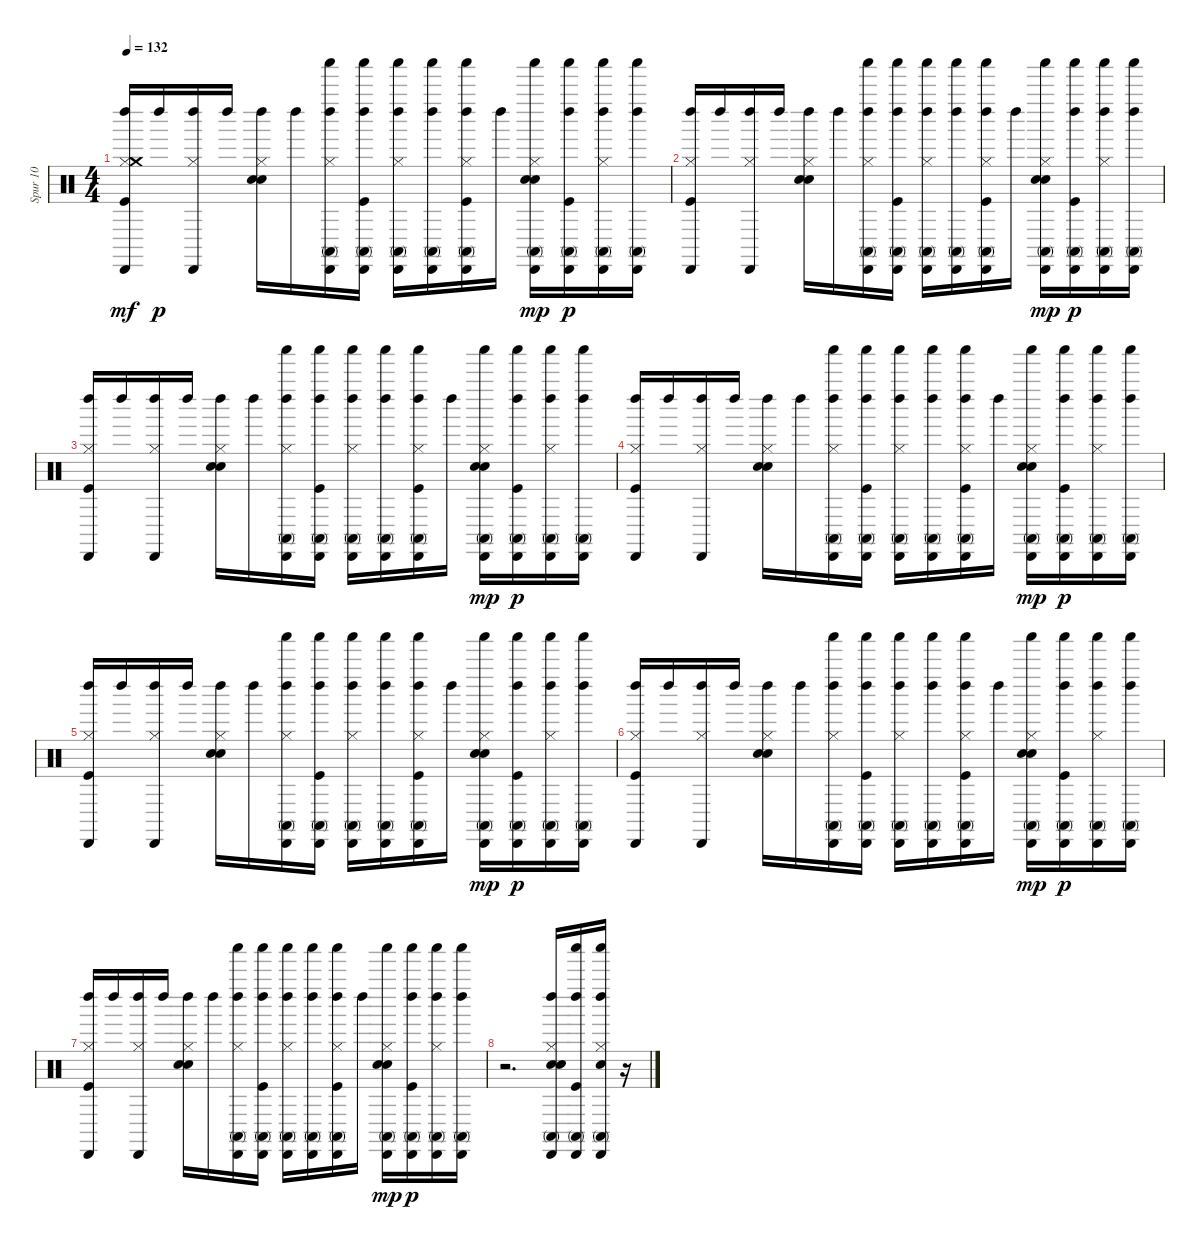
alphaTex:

\track ("Spur 10" "Spur 10") {instrument percussion}
\staff {score}
\articulation defaults
\ts (4 4)
\tempo 132
\clef neutral
\ks c
("Kick (hit)" "Hi-Hat (closed)" "Left Maraca (hit)" "Cabasa (hit)" "Crash medium (hit)").16{dy mf} "Left Maraca (hit)".16{dy p} ("Hi-Hat (closed)" "Left Maraca (hit)" "Cabasa (hit)").16 "Left Maraca (hit)".16 ("Hi-Hat (closed)" "Snare (hit) 2" "Hand Clap (hit)" "Left Maraca (hit)").16 "Left Maraca (hit)".16 ("Shaker (hit)" "Hi-Hat (closed)" "Cabasa (hit)" "Conga high (mute)" "Left Maraca (hit)").16 ("Shaker (hit)" "Kick (hit)" "Cabasa (hit)" "Conga high (mute)" "Left Maraca (hit)").16 ("Shaker (hit)" "Hi-Hat (closed)" "Cabasa (hit)" "Conga high (mute)" "Left Maraca (hit)").16 ("Shaker (hit)" "Cabasa (hit)" "Conga high (mute)" "Left Maraca (hit)").16 ("Shaker (hit)" "Kick (hit)" "Hi-Hat (closed)" "Cabasa (hit)" "Conga high (mute)" "Left Maraca (hit)").16 "Left Maraca (hit)".16 ("Shaker (hit)" "Hi-Hat (closed)" "Snare (hit) 2" "Cabasa (hit)" "Conga high (mute)" "Hand Clap (hit)").16{dy mp} ("Shaker (hit)" "Kick (hit)" "Cabasa (hit)" "Conga high (mute)" "Left Maraca (hit)").16{dy p} ("Shaker (hit)" "Hi-Hat (closed)" "Cabasa (hit)" "Conga high (mute)" "Left Maraca (hit)").16 ("Shaker (hit)" "Cabasa (hit)" "Conga high (mute)" "Left Maraca (hit)").16 |
("Kick (hit)" "Hi-Hat (closed)" "Cabasa (hit)" "Left Maraca (hit)").16 "Left Maraca (hit)".16 ("Hi-Hat (closed)" "Cabasa (hit)" "Left Maraca (hit)").16 "Left Maraca (hit)".16 ("Hi-Hat (closed)" "Snare (hit) 2" "Hand Clap (hit)" "Left Maraca (hit)").16 "Left Maraca (hit)".16 ("Shaker (hit)" "Hi-Hat (closed)" "Conga high (mute)" "Cabasa (hit)" "Left Maraca (hit)").16 ("Shaker (hit)" "Kick (hit)" "Conga high (mute)" "Cabasa (hit)" "Left Maraca (hit)").16 ("Shaker (hit)" "Hi-Hat (closed)" "Conga high (mute)" "Cabasa (hit)" "Left Maraca (hit)").16 ("Shaker (hit)" "Conga high (mute)" "Cabasa (hit)" "Left Maraca (hit)").16 ("Shaker (hit)" "Kick (hit)" "Hi-Hat (closed)" "Conga high (mute)" "Cabasa (hit)" "Left Maraca (hit)").16 "Left Maraca (hit)".16 ("Shaker (hit)" "Hi-Hat (closed)" "Snare (hit) 2" "Conga high (mute)" "Cabasa (hit)" "Hand Clap (hit)").16{dy mp} ("Shaker (hit)" "Kick (hit)" "Conga high (mute)" "Cabasa (hit)" "Left Maraca (hit)").16{dy p} ("Shaker (hit)" "Hi-Hat (closed)" "Conga high (mute)" "Cabasa (hit)" "Left Maraca (hit)").16 ("Shaker (hit)" "Conga high (mute)" "Cabasa (hit)" "Left Maraca (hit)").16 |
("Kick (hit)" "Hi-Hat (closed)" "Cabasa (hit)" "Left Maraca (hit)").16 "Left Maraca (hit)".16 ("Hi-Hat (closed)" "Cabasa (hit)" "Left Maraca (hit)").16 "Left Maraca (hit)".16 ("Hi-Hat (closed)" "Snare (hit) 2" "Hand Clap (hit)" "Left Maraca (hit)").16 "Left Maraca (hit)".16 ("Shaker (hit)" "Hi-Hat (closed)" "Conga high (mute)" "Cabasa (hit)" "Left Maraca (hit)").16 ("Shaker (hit)" "Kick (hit)" "Conga high (mute)" "Cabasa (hit)" "Left Maraca (hit)").16 ("Shaker (hit)" "Hi-Hat (closed)" "Conga high (mute)" "Cabasa (hit)" "Left Maraca (hit)").16 ("Shaker (hit)" "Conga high (mute)" "Cabasa (hit)" "Left Maraca (hit)").16 ("Shaker (hit)" "Kick (hit)" "Hi-Hat (closed)" "Conga high (mute)" "Cabasa (hit)" "Left Maraca (hit)").16 "Left Maraca (hit)".16 ("Shaker (hit)" "Hi-Hat (closed)" "Snare (hit) 2" "Conga high (mute)" "Cabasa (hit)" "Hand Clap (hit)").16{dy mp} ("Shaker (hit)" "Kick (hit)" "Conga high (mute)" "Cabasa (hit)" "Left Maraca (hit)").16{dy p} ("Shaker (hit)" "Hi-Hat (closed)" "Conga high (mute)" "Cabasa (hit)" "Left Maraca (hit)").16 ("Shaker (hit)" "Conga high (mute)" "Cabasa (hit)" "Left Maraca (hit)").16 |
("Kick (hit)" "Hi-Hat (closed)" "Cabasa (hit)" "Left Maraca (hit)").16 "Left Maraca (hit)".16 ("Hi-Hat (closed)" "Cabasa (hit)" "Left Maraca (hit)").16 "Left Maraca (hit)".16 ("Hi-Hat (closed)" "Snare (hit) 2" "Hand Clap (hit)" "Left Maraca (hit)").16 "Left Maraca (hit)".16 ("Shaker (hit)" "Hi-Hat (closed)" "Conga high (mute)" "Cabasa (hit)" "Left Maraca (hit)").16 ("Shaker (hit)" "Kick (hit)" "Conga high (mute)" "Cabasa (hit)" "Left Maraca (hit)").16 ("Shaker (hit)" "Hi-Hat (closed)" "Conga high (mute)" "Cabasa (hit)" "Left Maraca (hit)").16 ("Shaker (hit)" "Conga high (mute)" "Cabasa (hit)" "Left Maraca (hit)").16 ("Shaker (hit)" "Kick (hit)" "Hi-Hat (closed)" "Conga high (mute)" "Cabasa (hit)" "Left Maraca (hit)").16 "Left Maraca (hit)".16 ("Shaker (hit)" "Hi-Hat (closed)" "Snare (hit) 2" "Conga high (mute)" "Cabasa (hit)" "Hand Clap (hit)").16{dy mp} ("Shaker (hit)" "Kick (hit)" "Conga high (mute)" "Cabasa (hit)" "Left Maraca (hit)").16{dy p} ("Shaker (hit)" "Hi-Hat (closed)" "Conga high (mute)" "Cabasa (hit)" "Left Maraca (hit)").16 ("Shaker (hit)" "Conga high (mute)" "Cabasa (hit)" "Left Maraca (hit)").16 |
("Kick (hit)" "Hi-Hat (closed)" "Left Maraca (hit)" "Cabasa (hit)").16 "Left Maraca (hit)".16 ("Hi-Hat (closed)" "Left Maraca (hit)" "Cabasa (hit)").16 "Left Maraca (hit)".16 ("Hi-Hat (closed)" "Snare (hit) 2" "Hand Clap (hit)" "Left Maraca (hit)").16 "Left Maraca (hit)".16 ("Shaker (hit)" "Hi-Hat (closed)" "Conga high (mute)" "Cabasa (hit)" "Left Maraca (hit)").16 ("Shaker (hit)" "Kick (hit)" "Conga high (mute)" "Cabasa (hit)" "Left Maraca (hit)").16 ("Shaker (hit)" "Hi-Hat (closed)" "Conga high (mute)" "Cabasa (hit)" "Left Maraca (hit)").16 ("Shaker (hit)" "Conga high (mute)" "Cabasa (hit)" "Left Maraca (hit)").16 ("Shaker (hit)" "Kick (hit)" "Hi-Hat (closed)" "Conga high (mute)" "Cabasa (hit)" "Left Maraca (hit)").16 "Left Maraca (hit)".16 ("Shaker (hit)" "Hi-Hat (closed)" "Snare (hit) 2" "Conga high (mute)" "Cabasa (hit)" "Hand Clap (hit)").16{dy mp} ("Shaker (hit)" "Kick (hit)" "Conga high (mute)" "Cabasa (hit)" "Left Maraca (hit)").16{dy p} ("Shaker (hit)" "Hi-Hat (closed)" "Conga high (mute)" "Cabasa (hit)" "Left Maraca (hit)").16 ("Shaker (hit)" "Conga high (mute)" "Cabasa (hit)" "Left Maraca (hit)").16 |
("Kick (hit)" "Hi-Hat (closed)" "Cabasa (hit)" "Left Maraca (hit)").16 "Left Maraca (hit)".16 ("Hi-Hat (closed)" "Cabasa (hit)" "Left Maraca (hit)").16 "Left Maraca (hit)".16 ("Hi-Hat (closed)" "Snare (hit) 2" "Hand Clap (hit)" "Left Maraca (hit)").16 "Left Maraca (hit)".16 ("Shaker (hit)" "Hi-Hat (closed)" "Cabasa (hit)" "Conga high (mute)" "Left Maraca (hit)").16 ("Shaker (hit)" "Kick (hit)" "Cabasa (hit)" "Conga high (mute)" "Left Maraca (hit)").16 ("Shaker (hit)" "Hi-Hat (closed)" "Cabasa (hit)" "Conga high (mute)" "Left Maraca (hit)").16 ("Shaker (hit)" "Cabasa (hit)" "Conga high (mute)" "Left Maraca (hit)").16 ("Shaker (hit)" "Kick (hit)" "Hi-Hat (closed)" "Cabasa (hit)" "Conga high (mute)" "Left Maraca (hit)").16 "Left Maraca (hit)".16 ("Shaker (hit)" "Hi-Hat (closed)" "Snare (hit) 2" "Cabasa (hit)" "Conga high (mute)" "Hand Clap (hit)").16{dy mp} ("Shaker (hit)" "Kick (hit)" "Cabasa (hit)" "Conga high (mute)" "Left Maraca (hit)").16{dy p} ("Shaker (hit)" "Hi-Hat (closed)" "Cabasa (hit)" "Conga high (mute)" "Left Maraca (hit)").16 ("Shaker (hit)" "Cabasa (hit)" "Conga high (mute)" "Left Maraca (hit)").16 |
("Kick (hit)" "Hi-Hat (closed)" "Cabasa (hit)" "Left Maraca (hit)").16 "Left Maraca (hit)".16 ("Hi-Hat (closed)" "Cabasa (hit)" "Left Maraca (hit)").16 "Left Maraca (hit)".16 ("Hi-Hat (closed)" "Snare (hit) 2" "Hand Clap (hit)" "Left Maraca (hit)").16 "Left Maraca (hit)".16 ("Shaker (hit)" "Hi-Hat (closed)" "Conga high (mute)" "Cabasa (hit)" "Left Maraca (hit)").16 ("Shaker (hit)" "Kick (hit)" "Conga high (mute)" "Cabasa (hit)" "Left Maraca (hit)").16 ("Shaker (hit)" "Hi-Hat (closed)" "Conga high (mute)" "Cabasa (hit)" "Left Maraca (hit)").16 ("Shaker (hit)" "Conga high (mute)" "Cabasa (hit)" "Left Maraca (hit)").16 ("Shaker (hit)" "Kick (hit)" "Hi-Hat (closed)" "Conga high (mute)" "Cabasa (hit)" "Left Maraca (hit)").16 "Left Maraca (hit)".16 ("Shaker (hit)" "Hi-Hat (closed)" "Snare (hit) 2" "Conga high (mute)" "Cabasa (hit)" "Hand Clap (hit)").16{dy mp} ("Shaker (hit)" "Kick (hit)" "Conga high (mute)" "Cabasa (hit)" "Left Maraca (hit)").16{dy p} ("Shaker (hit)" "Hi-Hat (closed)" "Conga high (mute)" "Cabasa (hit)" "Left Maraca (hit)").16 ("Shaker (hit)" "Conga high (mute)" "Cabasa (hit)" "Left Maraca (hit)").16 |
r.2{d} ("Cabasa (hit)" "Conga high (mute)" "Hi-Hat (closed)" "Snare (hit) 2" "Hand Clap (hit)" "Left Maraca (hit)").16 ("Shaker (hit)" "Cabasa (hit)" "Conga high (mute)" "Kick (hit)" "Left Maraca (hit)").16 ("Shaker (hit)" "Cabasa (hit)" "Conga high (mute)" "Hi-Hat (closed)" "Electric Snare (hit)" "Left Maraca (hit)").16 r.16
